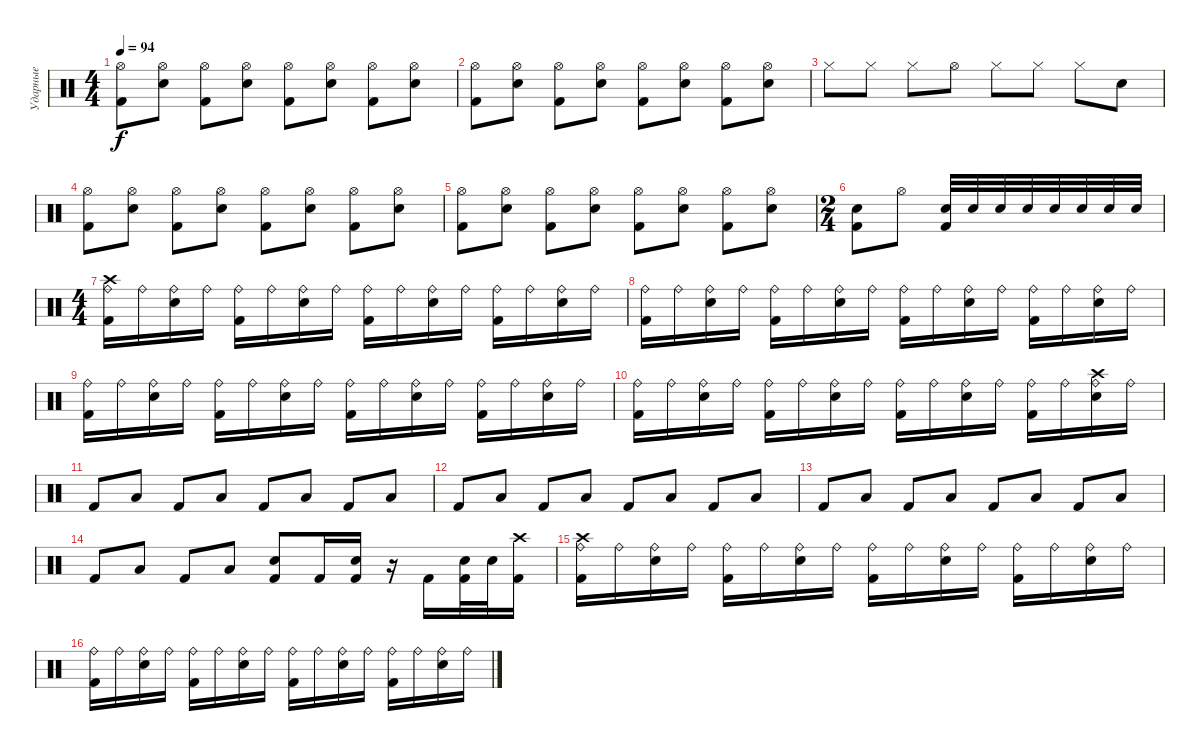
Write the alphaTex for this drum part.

\track ("Ударные" "Ударные") {instrument percussion}
\staff {score}
\articulation defaults
\ts (4 4)
\tempo 94
\clef neutral
\ks c
("Hi-Hat (open)" "Kick (hit) 2").8{dy f} ("Hi-Hat (open)" "Electric Snare (hit)").8 ("Hi-Hat (open)" "Kick (hit) 2").8 ("Hi-Hat (open)" "Electric Snare (hit)").8 ("Hi-Hat (open)" "Kick (hit) 2").8 ("Hi-Hat (open)" "Electric Snare (hit)").8 ("Hi-Hat (open)" "Kick (hit) 2").8 ("Hi-Hat (open)" "Electric Snare (hit)").8 |
("Hi-Hat (open)" "Kick (hit) 2").8 ("Hi-Hat (open)" "Electric Snare (hit)").8 ("Hi-Hat (open)" "Kick (hit) 2").8 ("Hi-Hat (open)" "Electric Snare (hit)").8 ("Hi-Hat (open)" "Kick (hit) 2").8 ("Hi-Hat (open)" "Electric Snare (hit)").8 ("Hi-Hat (open)" "Kick (hit) 2").8 ("Hi-Hat (open)" "Electric Snare (hit)").8 |
"Hi-Hat (closed)".8 "Hi-Hat (closed)".8 "Hi-Hat (closed)".8 "Hi-Hat (open)".8 "Hi-Hat (closed)".8 "Hi-Hat (closed)".8 "Hi-Hat (closed)".8 "Electric Snare (hit)".8 |
("Hi-Hat (open)" "Kick (hit) 2").8 ("Hi-Hat (open)" "Electric Snare (hit)").8 ("Hi-Hat (open)" "Kick (hit) 2").8 ("Hi-Hat (open)" "Electric Snare (hit)").8 ("Hi-Hat (open)" "Kick (hit) 2").8 ("Hi-Hat (open)" "Electric Snare (hit)").8 ("Hi-Hat (open)" "Kick (hit) 2").8 ("Hi-Hat (open)" "Electric Snare (hit)").8 |
("Hi-Hat (open)" "Kick (hit) 2").8 ("Hi-Hat (open)" "Electric Snare (hit)").8 ("Hi-Hat (open)" "Kick (hit) 2").8 ("Hi-Hat (open)" "Electric Snare (hit)").8 ("Hi-Hat (open)" "Kick (hit) 2").8 ("Hi-Hat (open)" "Electric Snare (hit)").8 ("Hi-Hat (open)" "Kick (hit) 2").8 ("Hi-Hat (open)" "Electric Snare (hit)").8 |
\ts (2 4)
("Electric Snare (hit)" "Kick (hit) 2").8 "Hi-Hat (open)".8 ("Electric Snare (hit)" "Kick (hit) 2").32 "Electric Snare (hit)".32 "Electric Snare (hit)".32 "Electric Snare (hit)".32 "Electric Snare (hit)".32 "Electric Snare (hit)".32 "Electric Snare (hit)".32 "Electric Snare (hit)".32 |
\ts (4 4)
("Crash high (hit)" "Ride (bell)" "Kick (hit) 2").16 "Ride (bell)".16 ("Ride (bell)" "Electric Snare (hit)").16 "Ride (bell)".16 ("Ride (bell)" "Kick (hit) 2").16 "Ride (bell)".16 ("Ride (bell)" "Electric Snare (hit)").16 "Ride (bell)".16 ("Ride (bell)" "Kick (hit) 2").16 "Ride (bell)".16 ("Ride (bell)" "Electric Snare (hit)").16 "Ride (bell)".16 ("Ride (bell)" "Kick (hit) 2").16 "Ride (bell)".16 ("Ride (bell)" "Electric Snare (hit)").16 "Ride (bell)".16 |
("Ride (bell)" "Kick (hit) 2").16 "Ride (bell)".16 ("Ride (bell)" "Electric Snare (hit)").16 "Ride (bell)".16 ("Ride (bell)" "Kick (hit) 2").16 "Ride (bell)".16 ("Ride (bell)" "Electric Snare (hit)").16 "Ride (bell)".16 ("Ride (bell)" "Kick (hit) 2").16 "Ride (bell)".16 ("Ride (bell)" "Electric Snare (hit)").16 "Ride (bell)".16 ("Ride (bell)" "Kick (hit) 2").16 "Ride (bell)".16 ("Ride (bell)" "Electric Snare (hit)").16 "Ride (bell)".16 |
("Ride (bell)" "Kick (hit) 2").16 "Ride (bell)".16 ("Ride (bell)" "Electric Snare (hit)").16 "Ride (bell)".16 ("Ride (bell)" "Kick (hit) 2").16 "Ride (bell)".16 ("Ride (bell)" "Electric Snare (hit)").16 "Ride (bell)".16 ("Ride (bell)" "Kick (hit) 2").16 "Ride (bell)".16 ("Ride (bell)" "Electric Snare (hit)").16 "Ride (bell)".16 ("Ride (bell)" "Kick (hit) 2").16 "Ride (bell)".16 ("Ride (bell)" "Electric Snare (hit)").16 "Ride (bell)".16 |
("Ride (bell)" "Kick (hit) 2").16 "Ride (bell)".16 ("Ride (bell)" "Electric Snare (hit)").16 "Ride (bell)".16 ("Ride (bell)" "Kick (hit) 2").16 "Ride (bell)".16 ("Ride (bell)" "Electric Snare (hit)").16 "Ride (bell)".16 ("Ride (bell)" "Kick (hit) 2").16 "Ride (bell)".16 ("Ride (bell)" "Electric Snare (hit)").16 "Ride (bell)".16 ("Ride (bell)" "Kick (hit) 2").16 "Ride (bell)".16 ("Crash high (hit)" "Ride (bell)" "Electric Snare (hit)").16 "Ride (bell)".16 |
"Kick (hit) 2".8 "Low Tom (hit)".8 "Kick (hit) 2".8 "Low Tom (hit)".8 "Kick (hit) 2".8 "Low Tom (hit)".8 "Kick (hit) 2".8 "Low Tom (hit)".8 |
"Kick (hit) 2".8 "Low Tom (hit)".8 "Kick (hit) 2".8 "Low Tom (hit)".8 "Kick (hit) 2".8 "Low Tom (hit)".8 "Kick (hit) 2".8 "Low Tom (hit)".8 |
"Kick (hit) 2".8 "Low Tom (hit)".8 "Kick (hit) 2".8 "Low Tom (hit)".8 "Kick (hit) 2".8 "Low Tom (hit)".8 "Kick (hit) 2".8 "Low Tom (hit)".8 |
"Kick (hit) 2".8 "Low Tom (hit)".8 "Kick (hit) 2".8 "Low Tom (hit)".8 ("Snare (hit) 2" "Kick (hit) 2").8 "Kick (hit) 2".16 ("Snare (hit) 2" "Kick (hit) 2").16 r.16 "Kick (hit) 2".16 ("Snare (hit) 2" "Kick (hit) 2").32 "Snare (hit) 2".32 ("Crash high (hit)" "Kick (hit) 2").16 |
("Crash high (hit)" "Ride (bell)" "Kick (hit) 2").16 "Ride (bell)".16 ("Ride (bell)" "Electric Snare (hit)").16 "Ride (bell)".16 ("Ride (bell)" "Kick (hit) 2").16 "Ride (bell)".16 ("Ride (bell)" "Electric Snare (hit)").16 "Ride (bell)".16 ("Ride (bell)" "Kick (hit) 2").16 "Ride (bell)".16 ("Ride (bell)" "Electric Snare (hit)").16 "Ride (bell)".16 ("Ride (bell)" "Kick (hit) 2").16 "Ride (bell)".16 ("Ride (bell)" "Electric Snare (hit)").16 "Ride (bell)".16 |
("Ride (bell)" "Kick (hit) 2").16 "Ride (bell)".16 ("Ride (bell)" "Electric Snare (hit)").16 "Ride (bell)".16 ("Ride (bell)" "Kick (hit) 2").16 "Ride (bell)".16 ("Ride (bell)" "Electric Snare (hit)").16 "Ride (bell)".16 ("Ride (bell)" "Kick (hit) 2").16 "Ride (bell)".16 ("Ride (bell)" "Electric Snare (hit)").16 "Ride (bell)".16 ("Ride (bell)" "Kick (hit) 2").16 "Ride (bell)".16 ("Ride (bell)" "Electric Snare (hit)").16 "Ride (bell)".16
